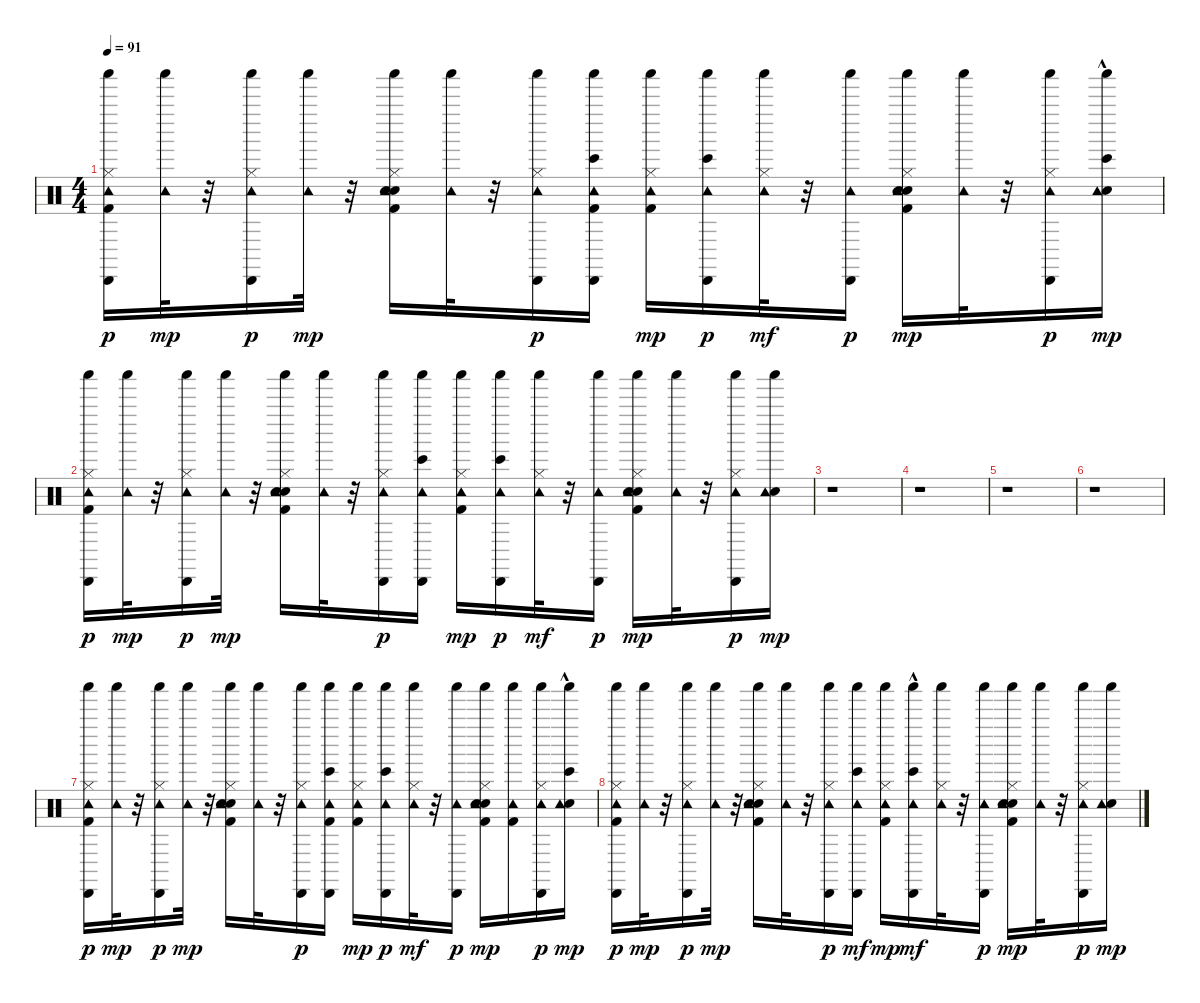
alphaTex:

\track "" {instrument percussion}
\staff {score}
\articulation defaults
\ts (4 4)
\tempo 91
\clef neutral
\ks c
("Kick (hit) 2" "Hi-Hat (closed)" "Tambourine (hit)" "Shaker (hit)" "Cabasa (hit)").16{dy p} ("Tambourine (hit)" "Shaker (hit)").32{dy mp} r.32 ("Hi-Hat (closed)" "Tambourine (hit)" "Shaker (hit)" "Cabasa (hit)").16{dy p} ("Tambourine (hit)" "Shaker (hit)").32{dy mp} r.32 ("Kick (hit) 2" "Electric Snare (hit)" "Hi-Hat (closed)" "Hand Clap (hit)" "Tambourine (hit)" "Shaker (hit)").16 ("Tambourine (hit)" "Shaker (hit)").32 r.32 ("Hi-Hat (closed)" "Tambourine (hit)" "Shaker (hit)" "Cabasa (hit)").16{dy p} ("Kick (hit) 2" "Tambourine (hit)" "Shaker (hit)" "Cabasa (hit)" "Bongo High (hit)").16 ("Kick (hit) 2" "Hi-Hat (closed)" "Tambourine (hit)" "Shaker (hit)").16{dy mp} ("Tambourine (hit)" "Shaker (hit)" "Cabasa (hit)" "Bongo High (hit)").16{dy p} ("Hi-Hat (closed)" "Tambourine (hit)" "Shaker (hit)").32{dy mf} r.32 ("Tambourine (hit)" "Shaker (hit)" "Cabasa (hit)").16{dy p} ("Kick (hit) 2" "Electric Snare (hit)" "Hi-Hat (closed)" "Hand Clap (hit)" "Tambourine (hit)" "Shaker (hit)").16{dy mp} ("Tambourine (hit)" "Shaker (hit)").32 r.32 ("Hi-Hat (closed)" "Tambourine (hit)" "Shaker (hit)" "Cabasa (hit)").16{dy p} ("Electric Snare (hit)" "Tambourine (hit)" "Shaker (hit)" "Bongo High (hit)"{hac}).16{dy mp} |
("Kick (hit) 2" "Hi-Hat (closed)" "Tambourine (hit)" "Shaker (hit)" "Cabasa (hit)").16{dy p} ("Tambourine (hit)" "Shaker (hit)").32{dy mp} r.32 ("Hi-Hat (closed)" "Tambourine (hit)" "Shaker (hit)" "Cabasa (hit)").16{dy p} ("Tambourine (hit)" "Shaker (hit)").32{dy mp} r.32 ("Kick (hit) 2" "Electric Snare (hit)" "Hi-Hat (closed)" "Hand Clap (hit)" "Tambourine (hit)" "Shaker (hit)").16 ("Tambourine (hit)" "Shaker (hit)").32 r.32 ("Hi-Hat (closed)" "Tambourine (hit)" "Shaker (hit)" "Cabasa (hit)").16{dy p} ("Tambourine (hit)" "Shaker (hit)" "Cabasa (hit)" "Bongo High (hit)").16 ("Kick (hit) 2" "Hi-Hat (closed)" "Tambourine (hit)" "Shaker (hit)").16{dy mp} ("Tambourine (hit)" "Shaker (hit)" "Cabasa (hit)" "Bongo High (hit)").16{dy p} ("Hi-Hat (closed)" "Tambourine (hit)" "Shaker (hit)").32{dy mf} r.32 ("Tambourine (hit)" "Shaker (hit)" "Cabasa (hit)").16{dy p} ("Kick (hit) 2" "Electric Snare (hit)" "Hi-Hat (closed)" "Hand Clap (hit)" "Tambourine (hit)" "Shaker (hit)").16{dy mp} ("Tambourine (hit)" "Shaker (hit)").32 r.32 ("Hi-Hat (closed)" "Tambourine (hit)" "Shaker (hit)" "Cabasa (hit)").16{dy p} ("Electric Snare (hit)" "Tambourine (hit)" "Shaker (hit)").16{dy mp} |
r.1 |
r.1 |
r.1 |
r.1 |
("Kick (hit) 2" "Hi-Hat (closed)" "Tambourine (hit)" "Shaker (hit)" "Cabasa (hit)").16{dy p} ("Tambourine (hit)" "Shaker (hit)").32{dy mp} r.32 ("Hi-Hat (closed)" "Tambourine (hit)" "Shaker (hit)" "Cabasa (hit)").16{dy p} ("Tambourine (hit)" "Shaker (hit)").32{dy mp} r.32 ("Kick (hit) 2" "Electric Snare (hit)" "Hi-Hat (closed)" "Hand Clap (hit)" "Tambourine (hit)" "Shaker (hit)").16 ("Tambourine (hit)" "Shaker (hit)").32 r.32 ("Hi-Hat (closed)" "Tambourine (hit)" "Shaker (hit)" "Cabasa (hit)").16{dy p} ("Kick (hit) 2" "Tambourine (hit)" "Shaker (hit)" "Cabasa (hit)" "Bongo High (hit)").16 ("Kick (hit) 2" "Hi-Hat (closed)" "Tambourine (hit)" "Shaker (hit)").16{dy mp} ("Tambourine (hit)" "Shaker (hit)" "Cabasa (hit)" "Bongo High (hit)").16{dy p} ("Hi-Hat (closed)" "Tambourine (hit)" "Shaker (hit)").32{dy mf} r.32 ("Tambourine (hit)" "Shaker (hit)" "Cabasa (hit)").16{dy p} ("Kick (hit) 2" "Electric Snare (hit)" "Hi-Hat (closed)" "Hand Clap (hit)" "Tambourine (hit)" "Shaker (hit)").16{dy mp} ("Kick (hit) 2" "Tambourine (hit)" "Shaker (hit)").16 ("Hi-Hat (closed)" "Tambourine (hit)" "Shaker (hit)" "Cabasa (hit)").16{dy p} ("Electric Snare (hit)" "Tambourine (hit)" "Shaker (hit)" "Bongo High (hit)"{hac}).16{dy mp} |
("Kick (hit) 2" "Hi-Hat (closed)" "Tambourine (hit)" "Shaker (hit)" "Cabasa (hit)").16{dy p} ("Tambourine (hit)" "Shaker (hit)").32{dy mp} r.32 ("Hi-Hat (closed)" "Tambourine (hit)" "Shaker (hit)" "Cabasa (hit)").16{dy p} ("Tambourine (hit)" "Shaker (hit)").32{dy mp} r.32 ("Kick (hit) 2" "Electric Snare (hit)" "Hi-Hat (closed)" "Hand Clap (hit)" "Tambourine (hit)" "Shaker (hit)").16 ("Tambourine (hit)" "Shaker (hit)").32 r.32 ("Hi-Hat (closed)" "Tambourine (hit)" "Shaker (hit)" "Cabasa (hit)").16{dy p} ("Tambourine (hit)" "Shaker (hit)" "Cabasa (hit)" "Bongo High (hit)").16{dy mf} ("Kick (hit) 2" "Hi-Hat (closed)" "Tambourine (hit)" "Shaker (hit)").16{dy mp} ("Tambourine (hit)" "Shaker (hit)" "Cabasa (hit)" "Bongo High (hit)"{hac}).16{dy mf} ("Hi-Hat (closed)" "Tambourine (hit)" "Shaker (hit)").32 r.32 ("Tambourine (hit)" "Shaker (hit)" "Cabasa (hit)").16{dy p} ("Kick (hit) 2" "Electric Snare (hit)" "Hi-Hat (closed)" "Hand Clap (hit)" "Tambourine (hit)" "Shaker (hit)").16{dy mp} ("Tambourine (hit)" "Shaker (hit)").32 r.32 ("Hi-Hat (closed)" "Tambourine (hit)" "Shaker (hit)" "Cabasa (hit)").16{dy p} ("Electric Snare (hit)" "Tambourine (hit)" "Shaker (hit)").16{dy mp}
